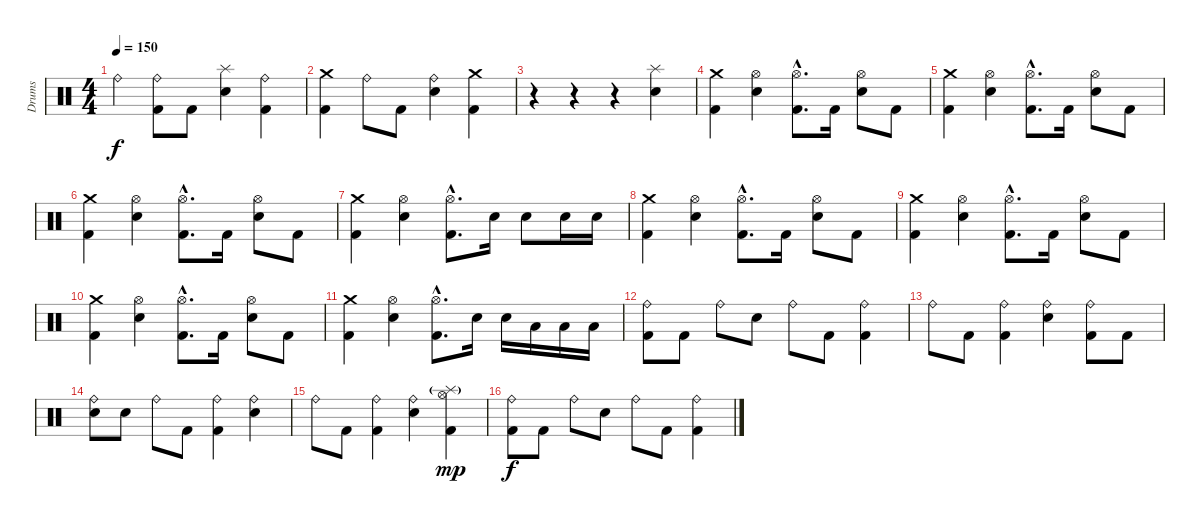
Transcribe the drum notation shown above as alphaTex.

\track ("Drums" "Drums") {instrument percussion}
\staff {score}
\articulation defaults
\ts (4 4)
\tempo 150
\clef neutral
\ks c "Ride (bell)".4{dy f}
("Ride (bell)" "Kick (hit) 2").8 "Kick (hit) 2".8 ("Splash (hit)" "Electric Snare (hit)").4 ("Ride (bell)" "Kick (hit) 2").4 |
("Crash medium (hit)" "Kick (hit) 2").4 "Ride (bell)".8 "Kick (hit) 2".8 ("Ride (bell)" "Electric Snare (hit)").4 ("Crash medium (hit)" "Kick (hit) 2").4 |
r.4 r.4 r.4 ("Splash (hit)" "Electric Snare (hit)").4 |
("Crash medium (hit)" "Kick (hit) 2").4 ("Hi-Hat (open)" "Electric Snare (hit)").4 ("Hi-Hat (open)"{hac} "Kick (hit) 2"{hac}).8{d} "Kick (hit) 2".16 ("Hi-Hat (open)" "Electric Snare (hit)").8 "Kick (hit) 2".8 |
("Crash medium (hit)" "Kick (hit) 2").4 ("Hi-Hat (open)" "Electric Snare (hit)").4 ("Hi-Hat (open)"{hac} "Kick (hit) 2"{hac}).8{d} "Kick (hit) 2".16 ("Hi-Hat (open)" "Electric Snare (hit)").8 "Kick (hit) 2".8 |
("Crash medium (hit)" "Kick (hit) 2").4 ("Hi-Hat (open)" "Electric Snare (hit)").4 ("Hi-Hat (open)"{hac} "Kick (hit) 2"{hac}).8{d} "Kick (hit) 2".16 ("Hi-Hat (open)" "Electric Snare (hit)").8 "Kick (hit) 2".8 |
("Crash medium (hit)" "Kick (hit) 2").4 ("Hi-Hat (open)" "Electric Snare (hit)").4 ("Hi-Hat (open)"{hac} "Kick (hit) 2"{hac}).8{d} "Electric Snare (hit)".16 "Electric Snare (hit)".8 "Electric Snare (hit)".16 "Electric Snare (hit)".16 |
("Crash medium (hit)" "Kick (hit) 2").4 ("Hi-Hat (open)" "Electric Snare (hit)").4 ("Hi-Hat (open)"{hac} "Kick (hit) 2"{hac}).8{d} "Kick (hit) 2".16 ("Hi-Hat (open)" "Electric Snare (hit)").8 "Kick (hit) 2".8 |
("Crash medium (hit)" "Kick (hit) 2").4 ("Hi-Hat (open)" "Electric Snare (hit)").4 ("Hi-Hat (open)"{hac} "Kick (hit) 2"{hac}).8{d} "Kick (hit) 2".16 ("Hi-Hat (open)" "Electric Snare (hit)").8 "Kick (hit) 2".8 |
("Crash medium (hit)" "Kick (hit) 2").4 ("Hi-Hat (open)" "Electric Snare (hit)").4 ("Hi-Hat (open)"{hac} "Kick (hit) 2"{hac}).8{d} "Kick (hit) 2".16 ("Hi-Hat (open)" "Electric Snare (hit)").8 "Kick (hit) 2".8 |
("Crash medium (hit)" "Kick (hit) 2").4 ("Hi-Hat (open)" "Electric Snare (hit)").4 ("Hi-Hat (open)"{hac} "Kick (hit) 2"{hac}).8{d} "Electric Snare (hit)".16 "Electric Snare (hit)".16 "Low Tom (hit)".16 "Low Tom (hit)".16 "Low Floor Tom (hit)".16 |
("Ride (bell)" "Kick (hit) 2").8 "Kick (hit) 2".8 "Ride (bell)".8 "Electric Snare (hit)".8 "Ride (bell)".8 "Kick (hit) 2".8 ("Ride (bell)" "Kick (hit) 2").4 |
"Ride (bell)".8 "Kick (hit) 2".8 ("Ride (bell)" "Kick (hit) 2").4 ("Ride (bell)" "Electric Snare (hit)").4 ("Ride (bell)" "Kick (hit) 2").8 "Kick (hit) 2".8 |
("Ride (bell)" "Electric Snare (hit)").8 "Electric Snare (hit)".8 "Ride (bell)".8 "Kick (hit) 2".8 ("Ride (bell)" "Kick (hit) 2").4 ("Ride (bell)" "Electric Snare (hit)").4 |
"Ride (bell)".8 "Kick (hit) 2".8 ("Ride (bell)" "Kick (hit) 2").4 ("Ride (bell)" "Electric Snare (hit)").4 ("Hi-Hat (open)" "Splash (hit)"{g} "Kick (hit) 2").4{dy mp} |
("Ride (bell)" "Kick (hit) 2").8{dy f} "Kick (hit) 2".8 "Ride (bell)".8 "Electric Snare (hit)".8 "Ride (bell)".8 "Kick (hit) 2".8 ("Ride (bell)" "Kick (hit) 2").4
